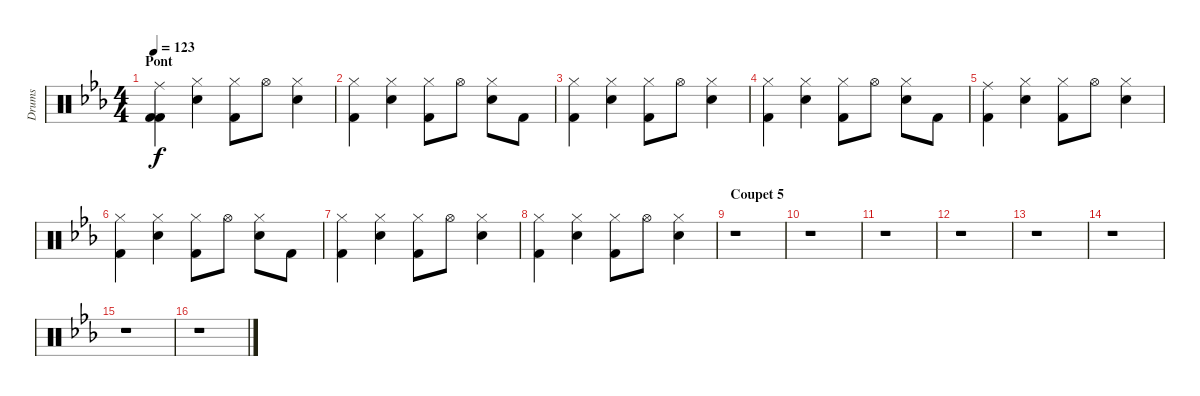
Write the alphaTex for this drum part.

\track ("Drums" "Drums") {instrument percussion}
\staff {score}
\articulation defaults
\ts (4 4)
\section ("" "Pont")
\tempo 123
\clef neutral
\ks cminor
("Ride (middle)" "Kick (hit) 2"{t} "Kick (hit) 2").4{dy f} ("Hi-Hat (closed)" "Electric Snare (hit)").4 ("Hi-Hat (closed)" "Kick (hit) 2").8 "Hi-Hat (open)".8 ("Hi-Hat (closed)" "Electric Snare (hit)").4 |
("Hi-Hat (closed)" "Kick (hit) 2").4 ("Hi-Hat (closed)" "Electric Snare (hit)").4 ("Hi-Hat (closed)" "Kick (hit) 2").8 "Hi-Hat (open)".8 ("Hi-Hat (closed)" "Electric Snare (hit)").8 "Kick (hit) 2".8 |
("Hi-Hat (closed)" "Kick (hit) 2").4 ("Hi-Hat (closed)" "Electric Snare (hit)").4 ("Hi-Hat (closed)" "Kick (hit) 2").8 "Hi-Hat (open)".8 ("Hi-Hat (closed)" "Electric Snare (hit)").4 |
("Hi-Hat (closed)" "Kick (hit) 2").4 ("Hi-Hat (closed)" "Electric Snare (hit)").4 ("Hi-Hat (closed)" "Kick (hit) 2").8 "Hi-Hat (open)".8 ("Hi-Hat (closed)" "Electric Snare (hit)").8 "Kick (hit) 2".8 |
("Ride (middle)" "Kick (hit) 2").4 ("Hi-Hat (closed)" "Electric Snare (hit)").4 ("Hi-Hat (closed)" "Kick (hit) 2").8 "Hi-Hat (open)".8 ("Hi-Hat (closed)" "Electric Snare (hit)").4 |
("Hi-Hat (closed)" "Kick (hit) 2").4 ("Hi-Hat (closed)" "Electric Snare (hit)").4 ("Hi-Hat (closed)" "Kick (hit) 2").8 "Hi-Hat (open)".8 ("Hi-Hat (closed)" "Electric Snare (hit)").8 "Kick (hit) 2".8 |
("Hi-Hat (closed)" "Kick (hit) 2").4 ("Hi-Hat (closed)" "Electric Snare (hit)").4 ("Hi-Hat (closed)" "Kick (hit) 2").8 "Hi-Hat (open)".8 ("Hi-Hat (closed)" "Electric Snare (hit)").4 |
("Hi-Hat (closed)" "Kick (hit) 2").4 ("Hi-Hat (closed)" "Electric Snare (hit)").4 ("Hi-Hat (closed)" "Kick (hit) 2").8 "Hi-Hat (open)".8 ("Hi-Hat (closed)" "Electric Snare (hit)").4 |
\section ("" "Coupet 5")
r.1 |
r.1 |
r.1 |
r.1 |
r.1 |
r.1 |
r.1 |
r.1
